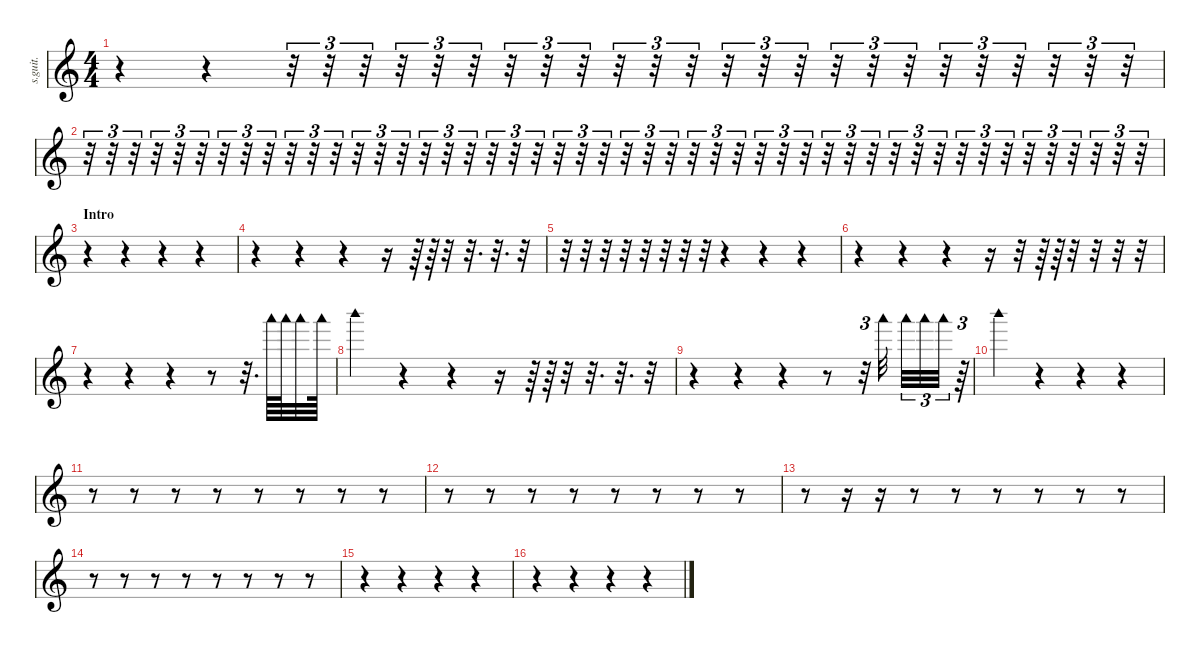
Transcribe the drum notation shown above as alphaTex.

\defaultSystemsLayout 4
\hideDynamics
\bracketExtendMode nobrackets
\track ("Woodblock" "s.guit.") {instrument percussion}
\staff {score}
\articulation defaults
\ts (4 4)
\beaming (8 2 2 2 2)
\tempo (69 hide)
\clef g2
\ks c
r.4{dy f} r.4 r.32{tu (3 2)} r.32{tu (3 2)} r.32{tu (3 2)} r.32{tu (3 2)} r.32{tu (3 2)} r.32{tu (3 2)} r.32{tu (3 2)} r.32{tu (3 2)} r.32{tu (3 2)} r.32{tu (3 2)} r.32{tu (3 2)} r.32{tu (3 2)} r.32{tu (3 2)} r.32{tu (3 2)} r.32{tu (3 2)} r.32{tu (3 2)} r.32{tu (3 2)} r.32{tu (3 2)} r.32{tu (3 2)} r.32{tu (3 2)} r.32{tu (3 2)} r.32{tu (3 2)} r.32{tu (3 2)} r.32{tu (3 2)} |
r.32{tu (3 2)} r.32{tu (3 2)} r.32{tu (3 2)} r.32{tu (3 2)} r.32{tu (3 2)} r.32{tu (3 2)} r.32{tu (3 2)} r.32{tu (3 2)} r.32{tu (3 2)} r.32{tu (3 2)} r.32{tu (3 2)} r.32{tu (3 2)} r.32{tu (3 2)} r.32{tu (3 2)} r.32{tu (3 2)} r.32{tu (3 2)} r.32{tu (3 2)} r.32{tu (3 2)} r.32{tu (3 2)} r.32{tu (3 2)} r.32{tu (3 2)} r.32{tu (3 2)} r.32{tu (3 2)} r.32{tu (3 2)} r.32{tu (3 2)} r.32{tu (3 2)} r.32{tu (3 2)} r.32{tu (3 2)} r.32{tu (3 2)} r.32{tu (3 2)} r.32{tu (3 2)} r.32{tu (3 2)} r.32{tu (3 2)} r.32{tu (3 2)} r.32{tu (3 2)} r.32{tu (3 2)} r.32{tu (3 2)} r.32{tu (3 2)} r.32{tu (3 2)} r.32{tu (3 2)} r.32{tu (3 2)} r.32{tu (3 2)} r.32{tu (3 2)} r.32{tu (3 2)} r.32{tu (3 2)} r.32{tu (3 2)} r.32{tu (3 2)} r.32{tu (3 2)} |
\section ("" "Intro")
r.4 r.4 r.4 r.4 |
r.4 r.4 r.4 r.16 r.64 r.64 r.32 r.32{d} r.32{d} r.32 |
r.32 r.32 r.32 r.32 r.32 r.32 r.32 r.32 r.4 r.4 r.4 |
r.4 r.4 r.4 r.16 r.32 r.64 r.64 r.32 r.32 r.32 r.32 |
r.4 r.4 r.4 r.8 r.32{d} "Woodblock low (hit)".64{lyrics (0 "") lyrics (1 "") lyrics (2 "") lyrics (3 "") lyrics (4 "")} "Woodblock low (hit)".64{lyrics (0 "") lyrics (1 "") lyrics (2 "") lyrics (3 "") lyrics (4 "")} "Woodblock low (hit)".32{lyrics (0 "") lyrics (1 "") lyrics (2 "") lyrics (3 "") lyrics (4 "")} "Woodblock low (hit)".64{lyrics (0 "") lyrics (1 "") lyrics (2 "") lyrics (3 "") lyrics (4 "")} |
"Woodblock high (hit)".4{lyrics (0 "") lyrics (1 "") lyrics (2 "") lyrics (3 "") lyrics (4 "")} r.4 r.4 r.16 r.64 r.64 r.32 r.32{d} r.32{d} r.32 |
r.4 r.4 r.4 r.8 r.32{tu (3 2)} "Woodblock low (hit)".32{lyrics (0 "") lyrics (1 "") lyrics (2 "") lyrics (3 "") lyrics (4 "")} "Woodblock low (hit)".32{tu (3 2) lyrics (0 "") lyrics (1 "") lyrics (2 "") lyrics (3 "") lyrics (4 "")} "Woodblock low (hit)".32{tu (3 2) lyrics (0 "") lyrics (1 "") lyrics (2 "") lyrics (3 "") lyrics (4 "")} "Woodblock low (hit)".32{tu (3 2) lyrics (0 "") lyrics (1 "") lyrics (2 "") lyrics (3 "") lyrics (4 "")} r.64{tu (3 2)} |
"Woodblock high (hit)".4{lyrics (0 "") lyrics (1 "") lyrics (2 "") lyrics (3 "") lyrics (4 "")} r.4 r.4 r.4 |
r.8 r.8 r.8 r.8 r.8 r.8 r.8 r.8 |
r.8 r.8 r.8 r.8 r.8 r.8 r.8 r.8 |
r.8 r.16 r.16 r.8 r.8 r.8 r.8 r.8 r.8 |
r.8 r.8 r.8 r.8 r.8 r.8 r.8 r.8 |
r.4 r.4 r.4 r.4 |
r.4 r.4 r.4 r.4
